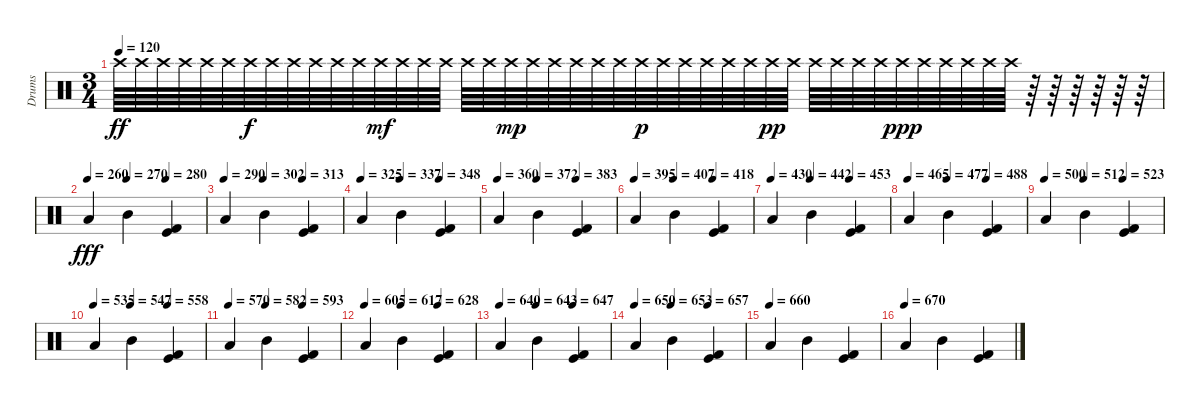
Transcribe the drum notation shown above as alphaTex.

\track ("Drums" "Drums") {instrument percussion}
\staff {score}
\articulation defaults
\ts (3 4)
\tempo 120
\clef neutral
\ks c "Crash high (hit)".64{dy ff} "Crash high (hit)".64 "Crash high (hit)".64 "Crash high (hit)".64 "Crash high (hit)".64 "Crash high (hit)".64 "Crash high (hit)".64{dy f} "Crash high (hit)".64 "Crash high (hit)".64 "Crash high (hit)".64 "Crash high (hit)".64 "Crash high (hit)".64 "Crash high (hit)".64{dy mf} "Crash high (hit)".64 "Crash high (hit)".64 "Crash high (hit)".64 "Crash high (hit)".64 "Crash high (hit)".64 "Crash high (hit)".64{dy mp} "Crash high (hit)".64 "Crash high (hit)".64 "Crash high (hit)".64 "Crash high (hit)".64 "Crash high (hit)".64 "Crash high (hit)".64{dy p} "Crash high (hit)".64 "Crash high (hit)".64 "Crash high (hit)".64 "Crash high (hit)".64 "Crash high (hit)".64 "Crash high (hit)".64{dy pp} "Crash high (hit)".64 "Crash high (hit)".64 "Crash high (hit)".64 "Crash high (hit)".64 "Crash high (hit)".64 "Crash high (hit)".64{dy ppp} "Crash high (hit)".64 "Crash high (hit)".64 "Crash high (hit)".64 "Crash high (hit)".64 "Crash high (hit)".64
r.64 r.64 r.64 r.64 r.64 r.64 |
\tempo 260
\tempo (270 0.3333333333333333)
\tempo (280 0.6666666666666666)
"Low Tom (hit)".4{dy fff balance 8} "Mid Tom (hit)".4 ("Kick (hit)" "Kick (hit) 2").4 |
\tempo 290
\tempo (302 0.3333333333333333)
\tempo (313 0.6666666666666666)
"Low Tom (hit)".4 "Mid Tom (hit)".4 ("Kick (hit)" "Kick (hit) 2").4 |
\tempo 325
\tempo (337 0.3333333333333333)
\tempo (348 0.6666666666666666)
"Low Tom (hit)".4 "Mid Tom (hit)".4 ("Kick (hit)" "Kick (hit) 2").4 |
\tempo 360
\tempo (372 0.3333333333333333)
\tempo (383 0.6666666666666666)
"Low Tom (hit)".4 "Mid Tom (hit)".4 ("Kick (hit)" "Kick (hit) 2").4 |
\tempo 395
\tempo (407 0.3333333333333333)
\tempo (418 0.6666666666666666)
"Low Tom (hit)".4 "Mid Tom (hit)".4 ("Kick (hit)" "Kick (hit) 2").4 |
\tempo 430
\tempo (442 0.3333333333333333)
\tempo (453 0.6666666666666666)
"Low Tom (hit)".4 "Mid Tom (hit)".4 ("Kick (hit)" "Kick (hit) 2").4 |
\tempo 465
\tempo (477 0.3333333333333333)
\tempo (488 0.6666666666666666)
"Low Tom (hit)".4 "Mid Tom (hit)".4 ("Kick (hit)" "Kick (hit) 2").4 |
\tempo 500
\tempo (512 0.3333333333333333)
\tempo (523 0.6666666666666666)
"Low Tom (hit)".4 "Mid Tom (hit)".4 ("Kick (hit)" "Kick (hit) 2").4 |
\tempo 535
\tempo (547 0.3333333333333333)
\tempo (558 0.6666666666666666)
"Low Tom (hit)".4 "Mid Tom (hit)".4 ("Kick (hit)" "Kick (hit) 2").4 |
\tempo 570
\tempo (582 0.3333333333333333)
\tempo (593 0.6666666666666666)
"Low Tom (hit)".4 "Mid Tom (hit)".4 ("Kick (hit)" "Kick (hit) 2").4 |
\tempo 605
\tempo (617 0.3333333333333333)
\tempo (628 0.6666666666666666)
"Low Tom (hit)".4 "Mid Tom (hit)".4 ("Kick (hit)" "Kick (hit) 2").4 |
\tempo 640
\tempo (643 0.3333333333333333)
\tempo (647 0.6666666666666666)
"Low Tom (hit)".4 "Mid Tom (hit)".4 ("Kick (hit)" "Kick (hit) 2").4 |
\tempo 650
\tempo (653 0.3333333333333333)
\tempo (657 0.6666666666666666)
"Low Tom (hit)".4 "Mid Tom (hit)".4 ("Kick (hit)" "Kick (hit) 2").4 |
\tempo (660)
"Low Tom (hit)".4 "Mid Tom (hit)".4 ("Kick (hit)" "Kick (hit) 2").4 |
\tempo (670)
"Low Tom (hit)".4 "Mid Tom (hit)".4 ("Kick (hit)" "Kick (hit) 2").4
